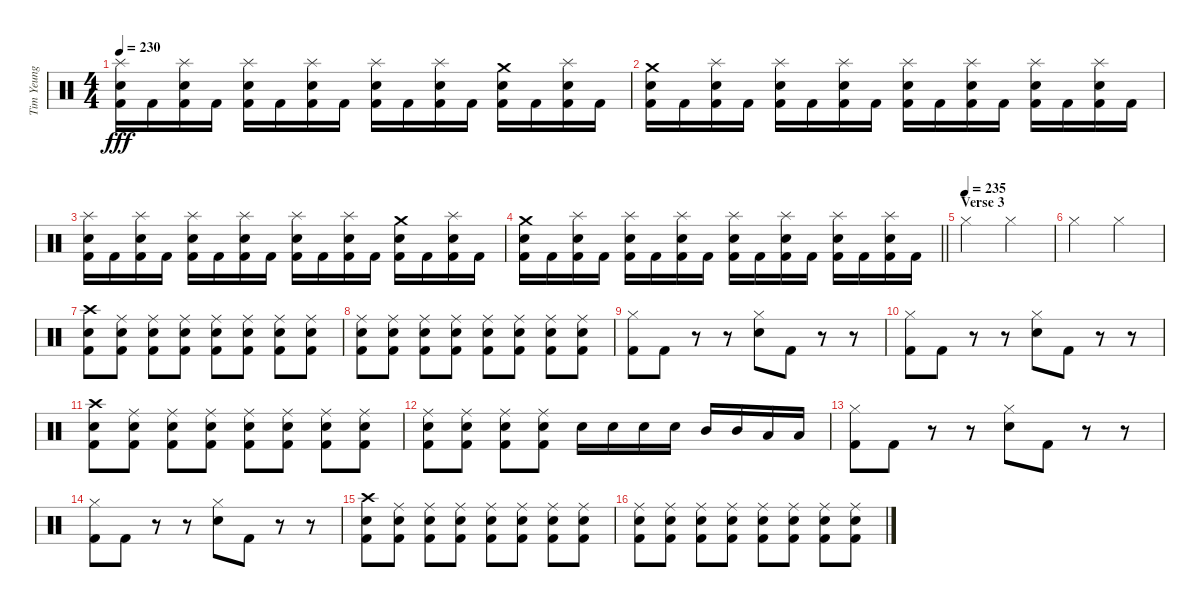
\track ("Tim Yeung" "Tim Yeung") {instrument percussion}
\staff {score}
\articulation defaults
\ts (4 4)
\tempo 230
\clef neutral
\ks c
("Splash (hit)" "Electric Snare (hit)" "Kick (hit) 2").16{dy fff} "Kick (hit) 2".16 ("Splash (hit)" "Electric Snare (hit)" "Kick (hit) 2").16 "Kick (hit) 2".16 ("Splash (hit)" "Electric Snare (hit)" "Kick (hit) 2").16 "Kick (hit) 2".16 ("Splash (hit)" "Electric Snare (hit)" "Kick (hit) 2").16 "Kick (hit) 2".16 ("Splash (hit)" "Electric Snare (hit)" "Kick (hit) 2").16 "Kick (hit) 2".16 ("Splash (hit)" "Electric Snare (hit)" "Kick (hit) 2").16 "Kick (hit) 2".16 ("Crash medium (hit)" "Electric Snare (hit)" "Kick (hit) 2").16 "Kick (hit) 2".16 ("Splash (hit)" "Electric Snare (hit)" "Kick (hit) 2").16 "Kick (hit) 2".16 |
("Crash medium (hit)" "Electric Snare (hit)" "Kick (hit) 2").16 "Kick (hit) 2".16 ("Splash (hit)" "Electric Snare (hit)" "Kick (hit) 2").16 "Kick (hit) 2".16 ("Splash (hit)" "Electric Snare (hit)" "Kick (hit) 2").16 "Kick (hit) 2".16 ("Splash (hit)" "Electric Snare (hit)" "Kick (hit) 2").16 "Kick (hit) 2".16 ("Splash (hit)" "Electric Snare (hit)" "Kick (hit) 2").16 "Kick (hit) 2".16 ("Splash (hit)" "Electric Snare (hit)" "Kick (hit) 2").16 "Kick (hit) 2".16 ("Splash (hit)" "Electric Snare (hit)" "Kick (hit) 2").16 "Kick (hit) 2".16 ("Splash (hit)" "Electric Snare (hit)" "Kick (hit) 2").16 "Kick (hit) 2".16 |
("Splash (hit)" "Electric Snare (hit)" "Kick (hit) 2").16 "Kick (hit) 2".16 ("Splash (hit)" "Electric Snare (hit)" "Kick (hit) 2").16 "Kick (hit) 2".16 ("Splash (hit)" "Electric Snare (hit)" "Kick (hit) 2").16 "Kick (hit) 2".16 ("Splash (hit)" "Electric Snare (hit)" "Kick (hit) 2").16 "Kick (hit) 2".16 ("Splash (hit)" "Electric Snare (hit)" "Kick (hit) 2").16 "Kick (hit) 2".16 ("Splash (hit)" "Electric Snare (hit)" "Kick (hit) 2").16 "Kick (hit) 2".16 ("Crash medium (hit)" "Electric Snare (hit)" "Kick (hit) 2").16 "Kick (hit) 2".16 ("Splash (hit)" "Electric Snare (hit)" "Kick (hit) 2").16 "Kick (hit) 2".16 |
\barLineRight lightlight
("Crash medium (hit)" "Electric Snare (hit)" "Kick (hit) 2").16 "Kick (hit) 2".16 ("Splash (hit)" "Electric Snare (hit)" "Kick (hit) 2").16 "Kick (hit) 2".16 ("Splash (hit)" "Electric Snare (hit)" "Kick (hit) 2").16 "Kick (hit) 2".16 ("Splash (hit)" "Electric Snare (hit)" "Kick (hit) 2").16 "Kick (hit) 2".16 ("Splash (hit)" "Electric Snare (hit)" "Kick (hit) 2").16 "Kick (hit) 2".16 ("Splash (hit)" "Electric Snare (hit)" "Kick (hit) 2").16 "Kick (hit) 2".16 ("Splash (hit)" "Electric Snare (hit)" "Kick (hit) 2").16 "Kick (hit) 2".16 ("Splash (hit)" "Electric Snare (hit)" "Kick (hit) 2").16 "Kick (hit) 2".16 |
\section ("" "Verse 3")
\tempo (235)
"Hi-Hat (closed)".2 "Hi-Hat (closed)".2 |
"Hi-Hat (closed)".2 "Hi-Hat (closed)".2 |
("Crash high (hit)" "Electric Snare (hit)" "Kick (hit) 2").8 ("Ride (middle)" "Electric Snare (hit)" "Kick (hit) 2").8 ("Ride (middle)" "Electric Snare (hit)" "Kick (hit) 2").8 ("Ride (middle)" "Electric Snare (hit)" "Kick (hit) 2").8 ("Ride (middle)" "Electric Snare (hit)" "Kick (hit) 2").8 ("Ride (middle)" "Electric Snare (hit)" "Kick (hit) 2").8 ("Ride (middle)" "Electric Snare (hit)" "Kick (hit) 2").8 ("Ride (middle)" "Electric Snare (hit)" "Kick (hit) 2").8 |
("Ride (middle)" "Electric Snare (hit)" "Kick (hit) 2").8 ("Ride (middle)" "Electric Snare (hit)" "Kick (hit) 2").8 ("Ride (middle)" "Electric Snare (hit)" "Kick (hit) 2").8 ("Ride (middle)" "Electric Snare (hit)" "Kick (hit) 2").8 ("Ride (middle)" "Electric Snare (hit)" "Kick (hit) 2").8 ("Ride (middle)" "Electric Snare (hit)" "Kick (hit) 2").8 ("Ride (middle)" "Electric Snare (hit)" "Kick (hit) 2").8 ("Ride (middle)" "Electric Snare (hit)" "Kick (hit) 2").8 |
("Hi-Hat (closed)" "Kick (hit) 2").8 "Kick (hit) 2".8 r.8 r.8 ("Hi-Hat (closed)" "Electric Snare (hit)").8 "Kick (hit) 2".8 r.8 r.8 |
("Hi-Hat (closed)" "Kick (hit) 2").8 "Kick (hit) 2".8 r.8 r.8 ("Hi-Hat (closed)" "Electric Snare (hit)").8 "Kick (hit) 2".8 r.8 r.8 |
("Crash high (hit)" "Electric Snare (hit)" "Kick (hit) 2").8 ("Ride (middle)" "Electric Snare (hit)" "Kick (hit) 2").8 ("Ride (middle)" "Electric Snare (hit)" "Kick (hit) 2").8 ("Ride (middle)" "Electric Snare (hit)" "Kick (hit) 2").8 ("Ride (middle)" "Electric Snare (hit)" "Kick (hit) 2").8 ("Ride (middle)" "Electric Snare (hit)" "Kick (hit) 2").8 ("Ride (middle)" "Electric Snare (hit)" "Kick (hit) 2").8 ("Ride (middle)" "Electric Snare (hit)" "Kick (hit) 2").8 |
("Ride (middle)" "Electric Snare (hit)" "Kick (hit) 2").8 ("Ride (middle)" "Electric Snare (hit)" "Kick (hit) 2").8 ("Ride (middle)" "Electric Snare (hit)" "Kick (hit) 2").8 ("Ride (middle)" "Electric Snare (hit)" "Kick (hit) 2").8 "Electric Snare (hit)".16 "Electric Snare (hit)".16 "Electric Snare (hit)".16 "Electric Snare (hit)".16 "Mid Tom (hit)".16 "Mid Tom (hit)".16 "Low Tom (hit)".16 "Low Tom (hit)".16 |
("Hi-Hat (closed)" "Kick (hit) 2").8 "Kick (hit) 2".8 r.8 r.8 ("Hi-Hat (closed)" "Electric Snare (hit)").8 "Kick (hit) 2".8 r.8 r.8 |
("Hi-Hat (closed)" "Kick (hit) 2").8 "Kick (hit) 2".8 r.8 r.8 ("Hi-Hat (closed)" "Electric Snare (hit)").8 "Kick (hit) 2".8 r.8 r.8 |
("Crash high (hit)" "Electric Snare (hit)" "Kick (hit) 2").8 ("Ride (middle)" "Electric Snare (hit)" "Kick (hit) 2").8 ("Ride (middle)" "Electric Snare (hit)" "Kick (hit) 2").8 ("Ride (middle)" "Electric Snare (hit)" "Kick (hit) 2").8 ("Ride (middle)" "Electric Snare (hit)" "Kick (hit) 2").8 ("Ride (middle)" "Electric Snare (hit)" "Kick (hit) 2").8 ("Ride (middle)" "Electric Snare (hit)" "Kick (hit) 2").8 ("Ride (middle)" "Electric Snare (hit)" "Kick (hit) 2").8 |
("Ride (middle)" "Electric Snare (hit)" "Kick (hit) 2").8 ("Ride (middle)" "Electric Snare (hit)" "Kick (hit) 2").8 ("Ride (middle)" "Electric Snare (hit)" "Kick (hit) 2").8 ("Ride (middle)" "Electric Snare (hit)" "Kick (hit) 2").8 ("Ride (middle)" "Electric Snare (hit)" "Kick (hit) 2").8 ("Ride (middle)" "Electric Snare (hit)" "Kick (hit) 2").8 ("Ride (middle)" "Electric Snare (hit)" "Kick (hit) 2").8 ("Ride (middle)" "Electric Snare (hit)" "Kick (hit) 2").8
